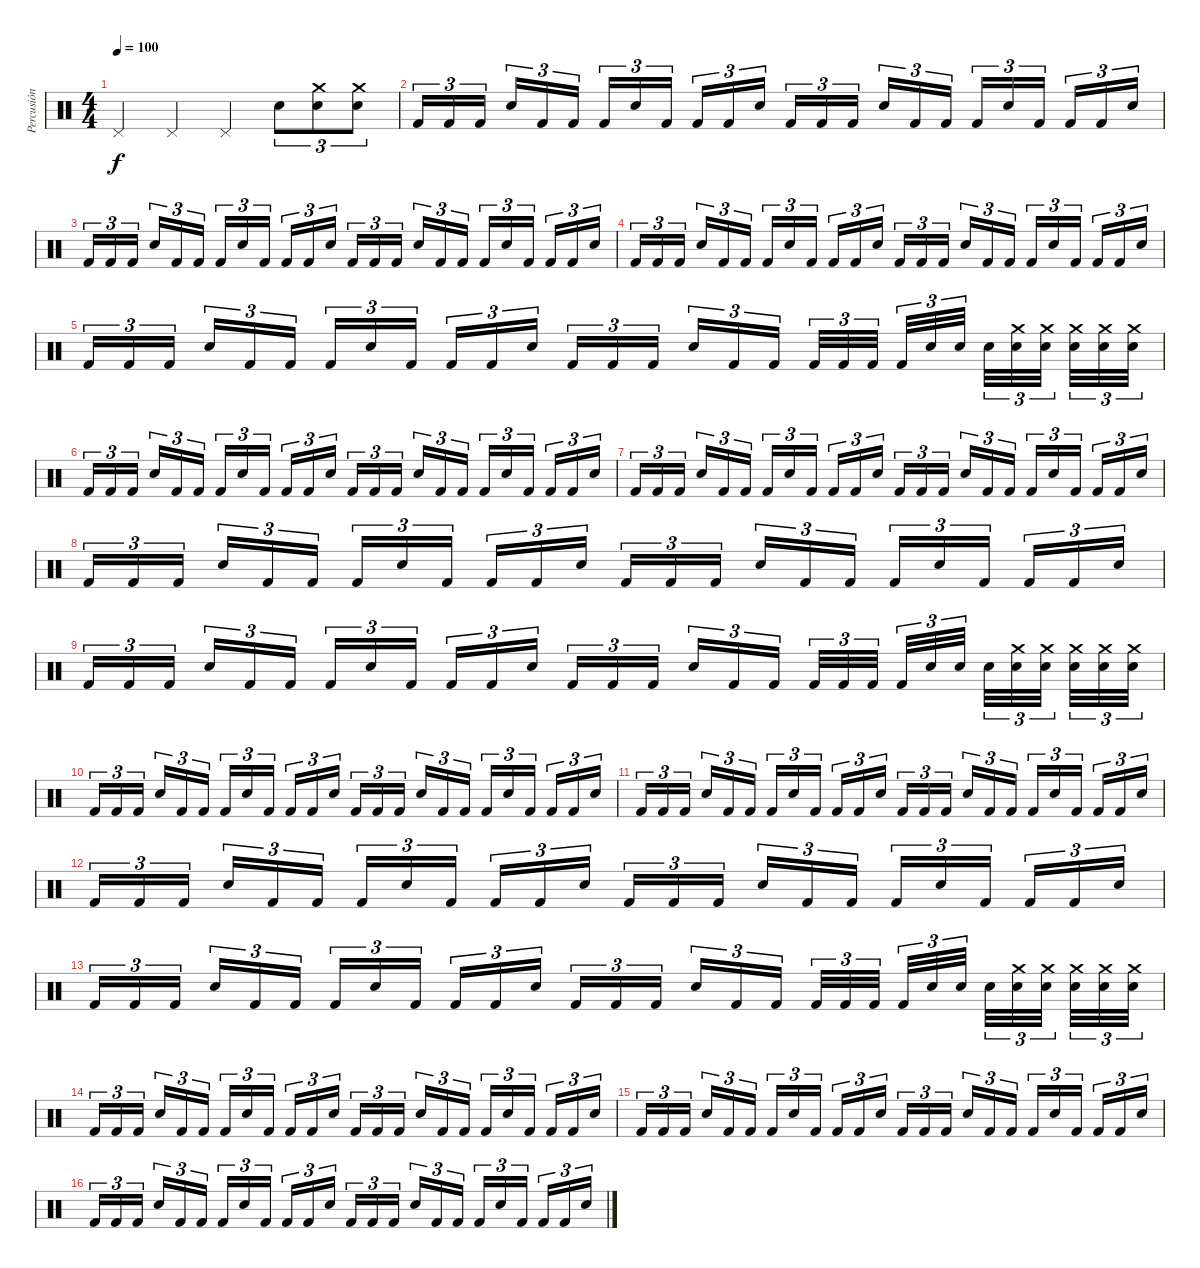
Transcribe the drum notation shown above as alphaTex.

\track ("Percusión" "Percusión") {instrument percussion}
\staff {score}
\articulation defaults
\ts (4 4)
\tempo 100
\clef neutral
\ks c "Pedal Hi-Hat (hit)".4{dy f} "Pedal Hi-Hat (hit)".4 "Pedal Hi-Hat (hit)".4 "Snare (hit) 2".8{tu (3 2)}
("Snare (hit) 2" "Crash medium (hit)").8{tu (3 2)} ("Snare (hit) 2" "Crash medium (hit)").8{tu (3 2)} |
"Kick (hit) 2".16{tu (3 2)} "Kick (hit) 2".16{tu (3 2)} "Kick (hit) 2".16{tu (3 2)} "Snare (hit) 2".16{tu (3 2)} "Kick (hit) 2".16{tu (3 2)} "Kick (hit) 2".16{tu (3 2)} "Kick (hit) 2".16{tu (3 2)} "Snare (hit) 2".16{tu (3 2)} "Kick (hit) 2".16{tu (3 2)} "Kick (hit) 2".16{tu (3 2)} "Kick (hit) 2".16{tu (3 2)} "Snare (hit) 2".16{tu (3 2)} "Kick (hit) 2".16{tu (3 2)} "Kick (hit) 2".16{tu (3 2)} "Kick (hit) 2".16{tu (3 2)} "Snare (hit) 2".16{tu (3 2)} "Kick (hit) 2".16{tu (3 2)} "Kick (hit) 2".16{tu (3 2)} "Kick (hit) 2".16{tu (3 2)} "Snare (hit) 2".16{tu (3 2)} "Kick (hit) 2".16{tu (3 2)} "Kick (hit) 2".16{tu (3 2)} "Kick (hit) 2".16{tu (3 2)} "Snare (hit) 2".16{tu (3 2)} |
"Kick (hit) 2".16{tu (3 2)} "Kick (hit) 2".16{tu (3 2)} "Kick (hit) 2".16{tu (3 2)} "Snare (hit) 2".16{tu (3 2)} "Kick (hit) 2".16{tu (3 2)} "Kick (hit) 2".16{tu (3 2)} "Kick (hit) 2".16{tu (3 2)} "Snare (hit) 2".16{tu (3 2)} "Kick (hit) 2".16{tu (3 2)} "Kick (hit) 2".16{tu (3 2)} "Kick (hit) 2".16{tu (3 2)} "Snare (hit) 2".16{tu (3 2)} "Kick (hit) 2".16{tu (3 2)} "Kick (hit) 2".16{tu (3 2)} "Kick (hit) 2".16{tu (3 2)} "Snare (hit) 2".16{tu (3 2)} "Kick (hit) 2".16{tu (3 2)} "Kick (hit) 2".16{tu (3 2)} "Kick (hit) 2".16{tu (3 2)} "Snare (hit) 2".16{tu (3 2)} "Kick (hit) 2".16{tu (3 2)} "Kick (hit) 2".16{tu (3 2)} "Kick (hit) 2".16{tu (3 2)} "Snare (hit) 2".16{tu (3 2)} |
"Kick (hit) 2".16{tu (3 2)} "Kick (hit) 2".16{tu (3 2)} "Kick (hit) 2".16{tu (3 2)} "Snare (hit) 2".16{tu (3 2)} "Kick (hit) 2".16{tu (3 2)} "Kick (hit) 2".16{tu (3 2)} "Kick (hit) 2".16{tu (3 2)} "Snare (hit) 2".16{tu (3 2)} "Kick (hit) 2".16{tu (3 2)} "Kick (hit) 2".16{tu (3 2)} "Kick (hit) 2".16{tu (3 2)} "Snare (hit) 2".16{tu (3 2)} "Kick (hit) 2".16{tu (3 2)} "Kick (hit) 2".16{tu (3 2)} "Kick (hit) 2".16{tu (3 2)} "Snare (hit) 2".16{tu (3 2)} "Kick (hit) 2".16{tu (3 2)} "Kick (hit) 2".16{tu (3 2)} "Kick (hit) 2".16{tu (3 2)} "Snare (hit) 2".16{tu (3 2)} "Kick (hit) 2".16{tu (3 2)} "Kick (hit) 2".16{tu (3 2)} "Kick (hit) 2".16{tu (3 2)} "Snare (hit) 2".16{tu (3 2)} |
"Kick (hit) 2".16{tu (3 2)} "Kick (hit) 2".16{tu (3 2)} "Kick (hit) 2".16{tu (3 2)} "Snare (hit) 2".16{tu (3 2)} "Kick (hit) 2".16{tu (3 2)} "Kick (hit) 2".16{tu (3 2)} "Kick (hit) 2".16{tu (3 2)} "Snare (hit) 2".16{tu (3 2)} "Kick (hit) 2".16{tu (3 2)} "Kick (hit) 2".16{tu (3 2)} "Kick (hit) 2".16{tu (3 2)} "Snare (hit) 2".16{tu (3 2)} "Kick (hit) 2".16{tu (3 2)} "Kick (hit) 2".16{tu (3 2)} "Kick (hit) 2".16{tu (3 2)} "Snare (hit) 2".16{tu (3 2)} "Kick (hit) 2".16{tu (3 2)} "Kick (hit) 2".16{tu (3 2)} "Kick (hit) 2".32{tu (3 2)} "Kick (hit) 2".32{tu (3 2)} "Kick (hit) 2".32{tu (3 2)} "Kick (hit) 2".32{tu (3 2)} "Snare (hit) 2".32{tu (3 2)} "Snare (hit) 2".32{tu (3 2)} "Snare (hit) 2".32{tu (3 2)} ("Snare (hit) 2" "Crash medium (hit)").32{tu (3 2)} ("Snare (hit) 2" "Crash medium (hit)").32{tu (3 2)} ("Snare (hit) 2" "Crash medium (hit)").32{tu (3 2)} ("Snare (hit) 2" "Crash medium (hit)").32{tu (3 2)} ("Snare (hit) 2" "Crash medium (hit)").32{tu (3 2)} |
"Kick (hit) 2".16{tu (3 2)} "Kick (hit) 2".16{tu (3 2)} "Kick (hit) 2".16{tu (3 2)} "Snare (hit) 2".16{tu (3 2)} "Kick (hit) 2".16{tu (3 2)} "Kick (hit) 2".16{tu (3 2)} "Kick (hit) 2".16{tu (3 2)} "Snare (hit) 2".16{tu (3 2)} "Kick (hit) 2".16{tu (3 2)} "Kick (hit) 2".16{tu (3 2)} "Kick (hit) 2".16{tu (3 2)} "Snare (hit) 2".16{tu (3 2)} "Kick (hit) 2".16{tu (3 2)} "Kick (hit) 2".16{tu (3 2)} "Kick (hit) 2".16{tu (3 2)} "Snare (hit) 2".16{tu (3 2)} "Kick (hit) 2".16{tu (3 2)} "Kick (hit) 2".16{tu (3 2)} "Kick (hit) 2".16{tu (3 2)} "Snare (hit) 2".16{tu (3 2)} "Kick (hit) 2".16{tu (3 2)} "Kick (hit) 2".16{tu (3 2)} "Kick (hit) 2".16{tu (3 2)} "Snare (hit) 2".16{tu (3 2)} |
"Kick (hit) 2".16{tu (3 2)} "Kick (hit) 2".16{tu (3 2)} "Kick (hit) 2".16{tu (3 2)} "Snare (hit) 2".16{tu (3 2)} "Kick (hit) 2".16{tu (3 2)} "Kick (hit) 2".16{tu (3 2)} "Kick (hit) 2".16{tu (3 2)} "Snare (hit) 2".16{tu (3 2)} "Kick (hit) 2".16{tu (3 2)} "Kick (hit) 2".16{tu (3 2)} "Kick (hit) 2".16{tu (3 2)} "Snare (hit) 2".16{tu (3 2)} "Kick (hit) 2".16{tu (3 2)} "Kick (hit) 2".16{tu (3 2)} "Kick (hit) 2".16{tu (3 2)} "Snare (hit) 2".16{tu (3 2)} "Kick (hit) 2".16{tu (3 2)} "Kick (hit) 2".16{tu (3 2)} "Kick (hit) 2".16{tu (3 2)} "Snare (hit) 2".16{tu (3 2)} "Kick (hit) 2".16{tu (3 2)} "Kick (hit) 2".16{tu (3 2)} "Kick (hit) 2".16{tu (3 2)} "Snare (hit) 2".16{tu (3 2)} |
"Kick (hit) 2".16{tu (3 2)} "Kick (hit) 2".16{tu (3 2)} "Kick (hit) 2".16{tu (3 2)} "Snare (hit) 2".16{tu (3 2)} "Kick (hit) 2".16{tu (3 2)} "Kick (hit) 2".16{tu (3 2)} "Kick (hit) 2".16{tu (3 2)} "Snare (hit) 2".16{tu (3 2)} "Kick (hit) 2".16{tu (3 2)} "Kick (hit) 2".16{tu (3 2)} "Kick (hit) 2".16{tu (3 2)} "Snare (hit) 2".16{tu (3 2)} "Kick (hit) 2".16{tu (3 2)} "Kick (hit) 2".16{tu (3 2)} "Kick (hit) 2".16{tu (3 2)} "Snare (hit) 2".16{tu (3 2)} "Kick (hit) 2".16{tu (3 2)} "Kick (hit) 2".16{tu (3 2)} "Kick (hit) 2".16{tu (3 2)} "Snare (hit) 2".16{tu (3 2)} "Kick (hit) 2".16{tu (3 2)} "Kick (hit) 2".16{tu (3 2)} "Kick (hit) 2".16{tu (3 2)} "Snare (hit) 2".16{tu (3 2)} |
"Kick (hit) 2".16{tu (3 2)} "Kick (hit) 2".16{tu (3 2)} "Kick (hit) 2".16{tu (3 2)} "Snare (hit) 2".16{tu (3 2)} "Kick (hit) 2".16{tu (3 2)} "Kick (hit) 2".16{tu (3 2)} "Kick (hit) 2".16{tu (3 2)} "Snare (hit) 2".16{tu (3 2)} "Kick (hit) 2".16{tu (3 2)} "Kick (hit) 2".16{tu (3 2)} "Kick (hit) 2".16{tu (3 2)} "Snare (hit) 2".16{tu (3 2)} "Kick (hit) 2".16{tu (3 2)} "Kick (hit) 2".16{tu (3 2)} "Kick (hit) 2".16{tu (3 2)} "Snare (hit) 2".16{tu (3 2)} "Kick (hit) 2".16{tu (3 2)} "Kick (hit) 2".16{tu (3 2)} "Kick (hit) 2".32{tu (3 2)} "Kick (hit) 2".32{tu (3 2)} "Kick (hit) 2".32{tu (3 2)} "Kick (hit) 2".32{tu (3 2)} "Snare (hit) 2".32{tu (3 2)} "Snare (hit) 2".32{tu (3 2)} "Snare (hit) 2".32{tu (3 2)} ("Snare (hit) 2" "Crash medium (hit)").32{tu (3 2)} ("Snare (hit) 2" "Crash medium (hit)").32{tu (3 2)} ("Snare (hit) 2" "Crash medium (hit)").32{tu (3 2)} ("Snare (hit) 2" "Crash medium (hit)").32{tu (3 2)} ("Snare (hit) 2" "Crash medium (hit)").32{tu (3 2)} |
"Kick (hit) 2".16{tu (3 2)} "Kick (hit) 2".16{tu (3 2)} "Kick (hit) 2".16{tu (3 2)} "Snare (hit) 2".16{tu (3 2)} "Kick (hit) 2".16{tu (3 2)} "Kick (hit) 2".16{tu (3 2)} "Kick (hit) 2".16{tu (3 2)} "Snare (hit) 2".16{tu (3 2)} "Kick (hit) 2".16{tu (3 2)} "Kick (hit) 2".16{tu (3 2)} "Kick (hit) 2".16{tu (3 2)} "Snare (hit) 2".16{tu (3 2)} "Kick (hit) 2".16{tu (3 2)} "Kick (hit) 2".16{tu (3 2)} "Kick (hit) 2".16{tu (3 2)} "Snare (hit) 2".16{tu (3 2)} "Kick (hit) 2".16{tu (3 2)} "Kick (hit) 2".16{tu (3 2)} "Kick (hit) 2".16{tu (3 2)} "Snare (hit) 2".16{tu (3 2)} "Kick (hit) 2".16{tu (3 2)} "Kick (hit) 2".16{tu (3 2)} "Kick (hit) 2".16{tu (3 2)} "Snare (hit) 2".16{tu (3 2)} |
"Kick (hit) 2".16{tu (3 2)} "Kick (hit) 2".16{tu (3 2)} "Kick (hit) 2".16{tu (3 2)} "Snare (hit) 2".16{tu (3 2)} "Kick (hit) 2".16{tu (3 2)} "Kick (hit) 2".16{tu (3 2)} "Kick (hit) 2".16{tu (3 2)} "Snare (hit) 2".16{tu (3 2)} "Kick (hit) 2".16{tu (3 2)} "Kick (hit) 2".16{tu (3 2)} "Kick (hit) 2".16{tu (3 2)} "Snare (hit) 2".16{tu (3 2)} "Kick (hit) 2".16{tu (3 2)} "Kick (hit) 2".16{tu (3 2)} "Kick (hit) 2".16{tu (3 2)} "Snare (hit) 2".16{tu (3 2)} "Kick (hit) 2".16{tu (3 2)} "Kick (hit) 2".16{tu (3 2)} "Kick (hit) 2".16{tu (3 2)} "Snare (hit) 2".16{tu (3 2)} "Kick (hit) 2".16{tu (3 2)} "Kick (hit) 2".16{tu (3 2)} "Kick (hit) 2".16{tu (3 2)} "Snare (hit) 2".16{tu (3 2)} |
"Kick (hit) 2".16{tu (3 2)} "Kick (hit) 2".16{tu (3 2)} "Kick (hit) 2".16{tu (3 2)} "Snare (hit) 2".16{tu (3 2)} "Kick (hit) 2".16{tu (3 2)} "Kick (hit) 2".16{tu (3 2)} "Kick (hit) 2".16{tu (3 2)} "Snare (hit) 2".16{tu (3 2)} "Kick (hit) 2".16{tu (3 2)} "Kick (hit) 2".16{tu (3 2)} "Kick (hit) 2".16{tu (3 2)} "Snare (hit) 2".16{tu (3 2)} "Kick (hit) 2".16{tu (3 2)} "Kick (hit) 2".16{tu (3 2)} "Kick (hit) 2".16{tu (3 2)} "Snare (hit) 2".16{tu (3 2)} "Kick (hit) 2".16{tu (3 2)} "Kick (hit) 2".16{tu (3 2)} "Kick (hit) 2".16{tu (3 2)} "Snare (hit) 2".16{tu (3 2)} "Kick (hit) 2".16{tu (3 2)} "Kick (hit) 2".16{tu (3 2)} "Kick (hit) 2".16{tu (3 2)} "Snare (hit) 2".16{tu (3 2)} |
"Kick (hit) 2".16{tu (3 2)} "Kick (hit) 2".16{tu (3 2)} "Kick (hit) 2".16{tu (3 2)} "Snare (hit) 2".16{tu (3 2)} "Kick (hit) 2".16{tu (3 2)} "Kick (hit) 2".16{tu (3 2)} "Kick (hit) 2".16{tu (3 2)} "Snare (hit) 2".16{tu (3 2)} "Kick (hit) 2".16{tu (3 2)} "Kick (hit) 2".16{tu (3 2)} "Kick (hit) 2".16{tu (3 2)} "Snare (hit) 2".16{tu (3 2)} "Kick (hit) 2".16{tu (3 2)} "Kick (hit) 2".16{tu (3 2)} "Kick (hit) 2".16{tu (3 2)} "Snare (hit) 2".16{tu (3 2)} "Kick (hit) 2".16{tu (3 2)} "Kick (hit) 2".16{tu (3 2)} "Kick (hit) 2".32{tu (3 2)} "Kick (hit) 2".32{tu (3 2)} "Kick (hit) 2".32{tu (3 2)} "Kick (hit) 2".32{tu (3 2)} "Snare (hit) 2".32{tu (3 2)} "Snare (hit) 2".32{tu (3 2)} "Snare (hit) 2".32{tu (3 2)} ("Snare (hit) 2" "Crash medium (hit)").32{tu (3 2)} ("Snare (hit) 2" "Crash medium (hit)").32{tu (3 2)} ("Snare (hit) 2" "Crash medium (hit)").32{tu (3 2)} ("Snare (hit) 2" "Crash medium (hit)").32{tu (3 2)} ("Snare (hit) 2" "Crash medium (hit)").32{tu (3 2)} |
"Kick (hit) 2".16{tu (3 2)} "Kick (hit) 2".16{tu (3 2)} "Kick (hit) 2".16{tu (3 2)} "Snare (hit) 2".16{tu (3 2)} "Kick (hit) 2".16{tu (3 2)} "Kick (hit) 2".16{tu (3 2)} "Kick (hit) 2".16{tu (3 2)} "Snare (hit) 2".16{tu (3 2)} "Kick (hit) 2".16{tu (3 2)} "Kick (hit) 2".16{tu (3 2)} "Kick (hit) 2".16{tu (3 2)} "Snare (hit) 2".16{tu (3 2)} "Kick (hit) 2".16{tu (3 2)} "Kick (hit) 2".16{tu (3 2)} "Kick (hit) 2".16{tu (3 2)} "Snare (hit) 2".16{tu (3 2)} "Kick (hit) 2".16{tu (3 2)} "Kick (hit) 2".16{tu (3 2)} "Kick (hit) 2".16{tu (3 2)} "Snare (hit) 2".16{tu (3 2)} "Kick (hit) 2".16{tu (3 2)} "Kick (hit) 2".16{tu (3 2)} "Kick (hit) 2".16{tu (3 2)} "Snare (hit) 2".16{tu (3 2)} |
"Kick (hit) 2".16{tu (3 2)} "Kick (hit) 2".16{tu (3 2)} "Kick (hit) 2".16{tu (3 2)} "Snare (hit) 2".16{tu (3 2)} "Kick (hit) 2".16{tu (3 2)} "Kick (hit) 2".16{tu (3 2)} "Kick (hit) 2".16{tu (3 2)} "Snare (hit) 2".16{tu (3 2)} "Kick (hit) 2".16{tu (3 2)} "Kick (hit) 2".16{tu (3 2)} "Kick (hit) 2".16{tu (3 2)} "Snare (hit) 2".16{tu (3 2)} "Kick (hit) 2".16{tu (3 2)} "Kick (hit) 2".16{tu (3 2)} "Kick (hit) 2".16{tu (3 2)} "Snare (hit) 2".16{tu (3 2)} "Kick (hit) 2".16{tu (3 2)} "Kick (hit) 2".16{tu (3 2)} "Kick (hit) 2".16{tu (3 2)} "Snare (hit) 2".16{tu (3 2)} "Kick (hit) 2".16{tu (3 2)} "Kick (hit) 2".16{tu (3 2)} "Kick (hit) 2".16{tu (3 2)} "Snare (hit) 2".16{tu (3 2)} |
"Kick (hit) 2".16{tu (3 2)} "Kick (hit) 2".16{tu (3 2)} "Kick (hit) 2".16{tu (3 2)} "Snare (hit) 2".16{tu (3 2)} "Kick (hit) 2".16{tu (3 2)} "Kick (hit) 2".16{tu (3 2)} "Kick (hit) 2".16{tu (3 2)} "Snare (hit) 2".16{tu (3 2)} "Kick (hit) 2".16{tu (3 2)} "Kick (hit) 2".16{tu (3 2)} "Kick (hit) 2".16{tu (3 2)} "Snare (hit) 2".16{tu (3 2)} "Kick (hit) 2".16{tu (3 2)} "Kick (hit) 2".16{tu (3 2)} "Kick (hit) 2".16{tu (3 2)} "Snare (hit) 2".16{tu (3 2)} "Kick (hit) 2".16{tu (3 2)} "Kick (hit) 2".16{tu (3 2)} "Kick (hit) 2".16{tu (3 2)} "Snare (hit) 2".16{tu (3 2)} "Kick (hit) 2".16{tu (3 2)} "Kick (hit) 2".16{tu (3 2)} "Kick (hit) 2".16{tu (3 2)} "Snare (hit) 2".16{tu (3 2)}
